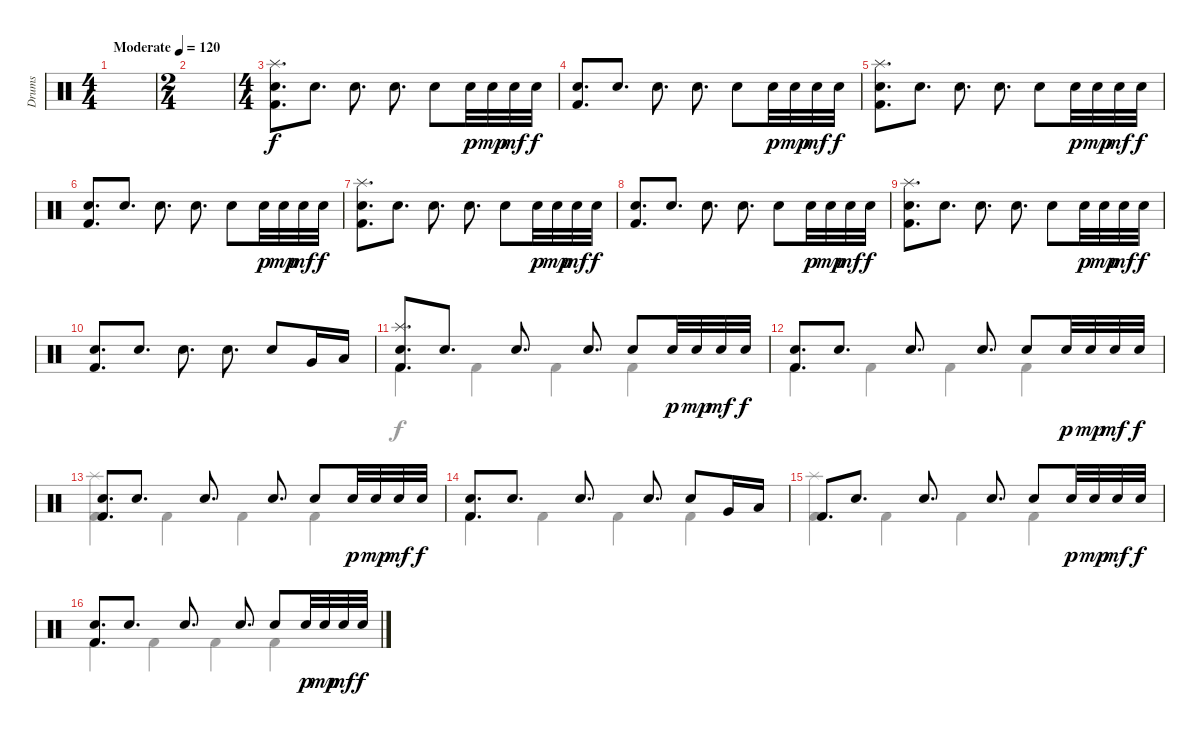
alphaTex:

\track ("Drums" "Drums") {instrument percussion}
\staff {score}
\articulation defaults
\voice
\ts (4 4)
\tempo (120 "Moderate")
\clef neutral
\ks c
|
\ts (2 4)
|
\ts (4 4)
("Splash (hit)" "Electric Snare (hit)" "Kick (hit) 2").8{d} "Electric Snare (hit)".8{d} "Electric Snare (hit)".8{d} "Electric Snare (hit)".8{d} "Electric Snare (hit)".8 "Electric Snare (hit)".32{dy p} "Electric Snare (hit)".32{dy mp} "Electric Snare (hit)".32{dy mf} "Electric Snare (hit)".32{dy f} |
("Electric Snare (hit)" "Kick (hit) 2").8{d} "Electric Snare (hit)".8{d} "Electric Snare (hit)".8{d} "Electric Snare (hit)".8{d} "Electric Snare (hit)".8 "Electric Snare (hit)".32{dy p} "Electric Snare (hit)".32{dy mp} "Electric Snare (hit)".32{dy mf} "Electric Snare (hit)".32{dy f} |
("Splash (hit)" "Electric Snare (hit)" "Kick (hit) 2").8{d} "Electric Snare (hit)".8{d} "Electric Snare (hit)".8{d} "Electric Snare (hit)".8{d} "Electric Snare (hit)".8 "Electric Snare (hit)".32{dy p} "Electric Snare (hit)".32{dy mp} "Electric Snare (hit)".32{dy mf} "Electric Snare (hit)".32{dy f} |
("Electric Snare (hit)" "Kick (hit) 2").8{d} "Electric Snare (hit)".8{d} "Electric Snare (hit)".8{d} "Electric Snare (hit)".8{d} "Electric Snare (hit)".8 "Electric Snare (hit)".32{dy p} "Electric Snare (hit)".32{dy mp} "Electric Snare (hit)".32{dy mf} "Electric Snare (hit)".32{dy f} |
("Splash (hit)" "Electric Snare (hit)" "Kick (hit) 2").8{d} "Electric Snare (hit)".8{d} "Electric Snare (hit)".8{d} "Electric Snare (hit)".8{d} "Electric Snare (hit)".8 "Electric Snare (hit)".32{dy p} "Electric Snare (hit)".32{dy mp} "Electric Snare (hit)".32{dy mf} "Electric Snare (hit)".32{dy f} |
("Electric Snare (hit)" "Kick (hit) 2").8{d} "Electric Snare (hit)".8{d} "Electric Snare (hit)".8{d} "Electric Snare (hit)".8{d} "Electric Snare (hit)".8 "Electric Snare (hit)".32{dy p} "Electric Snare (hit)".32{dy mp} "Electric Snare (hit)".32{dy mf} "Electric Snare (hit)".32{dy f} |
("Splash (hit)" "Electric Snare (hit)" "Kick (hit) 2").8{d} "Electric Snare (hit)".8{d} "Electric Snare (hit)".8{d} "Electric Snare (hit)".8{d} "Electric Snare (hit)".8 "Electric Snare (hit)".32{dy p} "Electric Snare (hit)".32{dy mp} "Electric Snare (hit)".32{dy mf} "Electric Snare (hit)".32{dy f} |
("Electric Snare (hit)" "Kick (hit) 2").8{d} "Electric Snare (hit)".8{d} "Electric Snare (hit)".8{d} "Electric Snare (hit)".8{d} "Electric Snare (hit)".8 "Very Low Tom (hit)".16 "Low Floor Tom (hit)".16 |
("Splash (hit)" "Electric Snare (hit)" "Kick (hit) 2").8{d} "Electric Snare (hit)".8{d} "Electric Snare (hit)".8{d} "Electric Snare (hit)".8{d} "Electric Snare (hit)".8 "Electric Snare (hit)".32{dy p} "Electric Snare (hit)".32{dy mp} "Electric Snare (hit)".32{dy mf} "Electric Snare (hit)".32{dy f} |
("Electric Snare (hit)" "Kick (hit) 2").8{d} "Electric Snare (hit)".8{d} "Electric Snare (hit)".8{d} "Electric Snare (hit)".8{d} "Electric Snare (hit)".8 "Electric Snare (hit)".32{dy p} "Electric Snare (hit)".32{dy mp} "Electric Snare (hit)".32{dy mf} "Electric Snare (hit)".32{dy f} |
("Electric Snare (hit)" "Kick (hit) 2").8{d} "Electric Snare (hit)".8{d} "Electric Snare (hit)".8{d} "Electric Snare (hit)".8{d} "Electric Snare (hit)".8 "Electric Snare (hit)".32{dy p} "Electric Snare (hit)".32{dy mp} "Electric Snare (hit)".32{dy mf} "Electric Snare (hit)".32{dy f} |
("Electric Snare (hit)" "Kick (hit) 2").8{d} "Electric Snare (hit)".8{d} "Electric Snare (hit)".8{d} "Electric Snare (hit)".8{d} "Electric Snare (hit)".8 "Very Low Tom (hit)".16 "Low Floor Tom (hit)".16 |
"Kick (hit) 2".8{d} "Electric Snare (hit)".8{d} "Electric Snare (hit)".8{d} "Electric Snare (hit)".8{d} "Electric Snare (hit)".8 "Electric Snare (hit)".32{dy p} "Electric Snare (hit)".32{dy mp} "Electric Snare (hit)".32{dy mf} "Electric Snare (hit)".32{dy f} |
("Electric Snare (hit)" "Kick (hit) 2").8{d} "Electric Snare (hit)".8{d} "Electric Snare (hit)".8{d} "Electric Snare (hit)".8{d} "Electric Snare (hit)".8 "Electric Snare (hit)".32{dy p} "Electric Snare (hit)".32{dy mp} "Electric Snare (hit)".32{dy mf} "Electric Snare (hit)".32{dy f}
\voice
\clef neutral
\ottava regular
\simile none
\ks c
|
|
|
|
|
|
|
|
|
|
"Kick (hit) 2".4 "Kick (hit) 2".4 "Kick (hit) 2".4 "Kick (hit) 2".4 |
"Kick (hit) 2".4 "Kick (hit) 2".4 "Kick (hit) 2".4 "Kick (hit) 2".4 |
("Splash (hit)" "Kick (hit) 2").4 "Kick (hit) 2".4 "Kick (hit) 2".4 "Kick (hit) 2".4 |
"Kick (hit) 2".4 "Kick (hit) 2".4 "Kick (hit) 2".4 "Kick (hit) 2".4 |
("Splash (hit)" "Kick (hit) 2").4 "Kick (hit) 2".4 "Kick (hit) 2".4 "Kick (hit) 2".4 |
"Kick (hit) 2".4 "Kick (hit) 2".4 "Kick (hit) 2".4 "Kick (hit) 2".4
